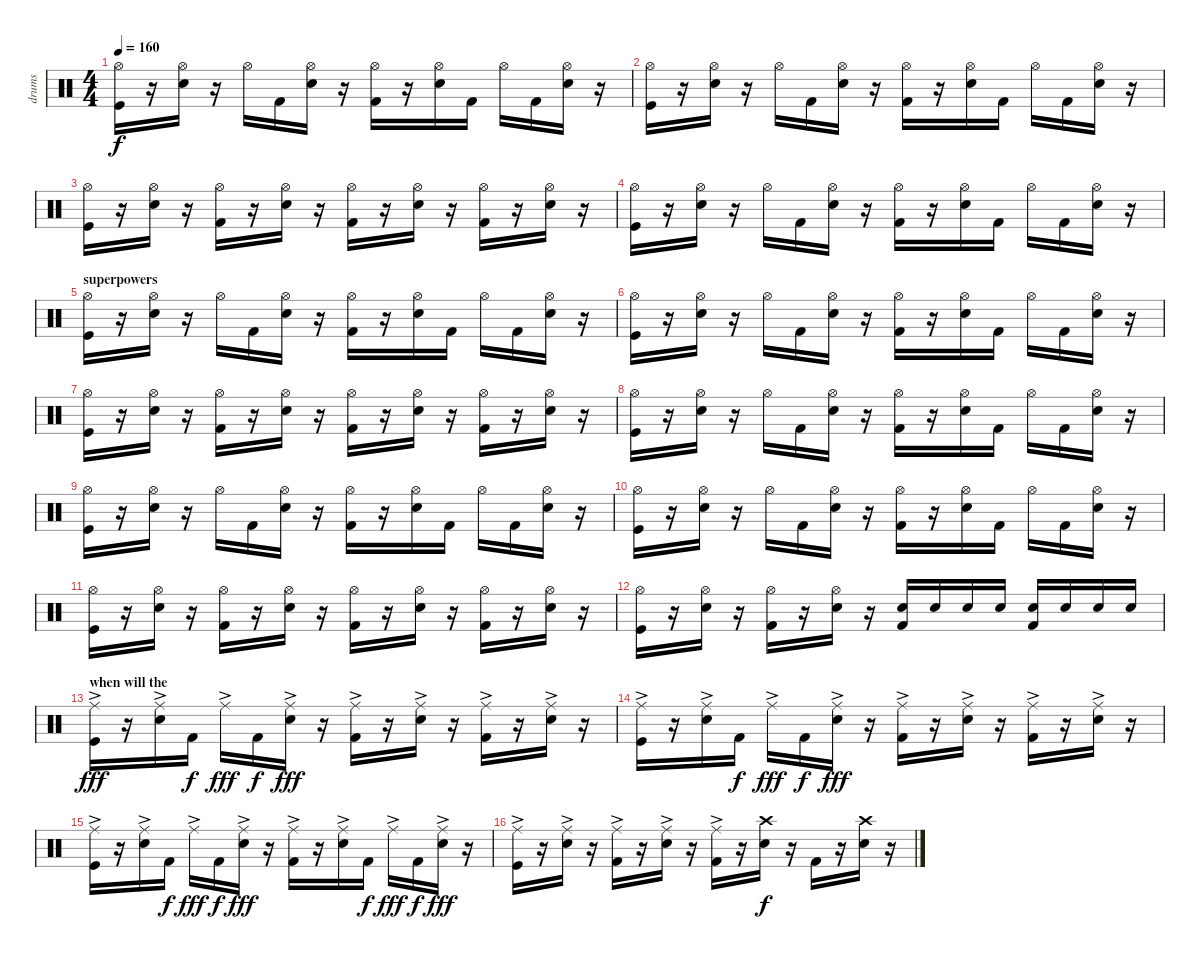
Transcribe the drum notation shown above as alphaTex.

\track ("drums" "drums") {instrument percussion}
\staff {score}
\articulation defaults
\ts (4 4)
\tempo 160
\clef neutral
\ks c
("Hi-Hat (open)" "Kick (hit)").16{dy f} r.16 ("Hi-Hat (open)" "Snare (hit) 2").16 r.16 "Hi-Hat (open)".16 "Kick (hit) 2".16 ("Hi-Hat (open)" "Snare (hit) 2").16 r.16 ("Hi-Hat (open)" "Kick (hit) 2").16 r.16 ("Hi-Hat (open)" "Snare (hit) 2").16 "Kick (hit) 2".16 "Hi-Hat (open)".16 "Kick (hit) 2".16 ("Hi-Hat (open)" "Snare (hit) 2").16 r.16 |
("Hi-Hat (open)" "Kick (hit)").16 r.16 ("Hi-Hat (open)" "Snare (hit) 2").16 r.16 "Hi-Hat (open)".16 "Kick (hit) 2".16 ("Hi-Hat (open)" "Snare (hit) 2").16 r.16 ("Hi-Hat (open)" "Kick (hit) 2").16 r.16 ("Hi-Hat (open)" "Snare (hit) 2").16 "Kick (hit) 2".16 "Hi-Hat (open)".16 "Kick (hit) 2".16 ("Hi-Hat (open)" "Snare (hit) 2").16 r.16 |
("Hi-Hat (open)" "Kick (hit)").16 r.16 ("Hi-Hat (open)" "Snare (hit) 2").16 r.16 ("Hi-Hat (open)" "Kick (hit) 2").16 r.16 ("Hi-Hat (open)" "Snare (hit) 2").16 r.16 ("Hi-Hat (open)" "Kick (hit) 2").16 r.16 ("Hi-Hat (open)" "Snare (hit) 2").16 r.16 ("Hi-Hat (open)" "Kick (hit) 2").16 r.16 ("Hi-Hat (open)" "Snare (hit) 2").16 r.16 |
("Hi-Hat (open)" "Kick (hit)").16 r.16 ("Hi-Hat (open)" "Snare (hit) 2").16 r.16 "Hi-Hat (open)".16 "Kick (hit) 2".16 ("Hi-Hat (open)" "Snare (hit) 2").16 r.16 ("Hi-Hat (open)" "Kick (hit) 2").16 r.16 ("Hi-Hat (open)" "Snare (hit) 2").16 "Kick (hit) 2".16 "Hi-Hat (open)".16 "Kick (hit) 2".16 ("Hi-Hat (open)" "Snare (hit) 2").16 r.16 |
\section ("" "superpowers")
("Hi-Hat (open)" "Kick (hit)").16 r.16 ("Hi-Hat (open)" "Snare (hit) 2").16 r.16 "Hi-Hat (open)".16 "Kick (hit) 2".16 ("Hi-Hat (open)" "Snare (hit) 2").16 r.16 ("Hi-Hat (open)" "Kick (hit) 2").16 r.16 ("Hi-Hat (open)" "Snare (hit) 2").16 "Kick (hit) 2".16 "Hi-Hat (open)".16 "Kick (hit) 2".16 ("Hi-Hat (open)" "Snare (hit) 2").16 r.16 |
("Hi-Hat (open)" "Kick (hit)").16 r.16 ("Hi-Hat (open)" "Snare (hit) 2").16 r.16 "Hi-Hat (open)".16 "Kick (hit) 2".16 ("Hi-Hat (open)" "Snare (hit) 2").16 r.16 ("Hi-Hat (open)" "Kick (hit) 2").16 r.16 ("Hi-Hat (open)" "Snare (hit) 2").16 "Kick (hit) 2".16 "Hi-Hat (open)".16 "Kick (hit) 2".16 ("Hi-Hat (open)" "Snare (hit) 2").16 r.16 |
("Hi-Hat (open)" "Kick (hit)").16 r.16 ("Hi-Hat (open)" "Snare (hit) 2").16 r.16 ("Hi-Hat (open)" "Kick (hit) 2").16 r.16 ("Hi-Hat (open)" "Snare (hit) 2").16 r.16 ("Hi-Hat (open)" "Kick (hit) 2").16 r.16 ("Hi-Hat (open)" "Snare (hit) 2").16 r.16 ("Hi-Hat (open)" "Kick (hit) 2").16 r.16 ("Hi-Hat (open)" "Snare (hit) 2").16 r.16 |
("Hi-Hat (open)" "Kick (hit)").16 r.16 ("Hi-Hat (open)" "Snare (hit) 2").16 r.16 "Hi-Hat (open)".16 "Kick (hit) 2".16 ("Hi-Hat (open)" "Snare (hit) 2").16 r.16 ("Hi-Hat (open)" "Kick (hit) 2").16 r.16 ("Hi-Hat (open)" "Snare (hit) 2").16 "Kick (hit) 2".16 "Hi-Hat (open)".16 "Kick (hit) 2".16 ("Hi-Hat (open)" "Snare (hit) 2").16 r.16 |
("Hi-Hat (open)" "Kick (hit)").16 r.16 ("Hi-Hat (open)" "Snare (hit) 2").16 r.16 "Hi-Hat (open)".16 "Kick (hit) 2".16 ("Hi-Hat (open)" "Snare (hit) 2").16 r.16 ("Hi-Hat (open)" "Kick (hit) 2").16 r.16 ("Hi-Hat (open)" "Snare (hit) 2").16 "Kick (hit) 2".16 "Hi-Hat (open)".16 "Kick (hit) 2".16 ("Hi-Hat (open)" "Snare (hit) 2").16 r.16 |
("Hi-Hat (open)" "Kick (hit)").16 r.16 ("Hi-Hat (open)" "Snare (hit) 2").16 r.16 "Hi-Hat (open)".16 "Kick (hit) 2".16 ("Hi-Hat (open)" "Snare (hit) 2").16 r.16 ("Hi-Hat (open)" "Kick (hit) 2").16 r.16 ("Hi-Hat (open)" "Snare (hit) 2").16 "Kick (hit) 2".16 "Hi-Hat (open)".16 "Kick (hit) 2".16 ("Hi-Hat (open)" "Snare (hit) 2").16 r.16 |
("Hi-Hat (open)" "Kick (hit)").16 r.16 ("Hi-Hat (open)" "Snare (hit) 2").16 r.16 ("Hi-Hat (open)" "Kick (hit) 2").16 r.16 ("Hi-Hat (open)" "Snare (hit) 2").16 r.16 ("Hi-Hat (open)" "Kick (hit) 2").16 r.16 ("Hi-Hat (open)" "Snare (hit) 2").16 r.16 ("Hi-Hat (open)" "Kick (hit) 2").16 r.16 ("Hi-Hat (open)" "Snare (hit) 2").16 r.16 |
("Hi-Hat (open)" "Kick (hit)").16 r.16 ("Hi-Hat (open)" "Snare (hit) 2").16 r.16 ("Hi-Hat (open)" "Kick (hit) 2").16 r.16 ("Hi-Hat (open)" "Snare (hit) 2").16 r.16 ("Snare (hit) 2" "Kick (hit) 2").16 "Snare (hit) 2".16 "Snare (hit) 2".16 "Snare (hit) 2".16 ("Snare (hit) 2" "Kick (hit) 2").16 "Snare (hit) 2".16 "Snare (hit) 2".16 "Snare (hit) 2".16 |
\section ("" "when will the")
("Ride (middle)"{ac} "Kick (hit)").16{dy fff} r.16 ("Ride (middle)"{ac} "Snare (hit) 2").16 "Kick (hit) 2".16{dy f} "Ride (middle)"{ac}.16{dy fff} "Kick (hit) 2".16{dy f} ("Ride (middle)"{ac} "Snare (hit) 2").16{dy fff} r.16 ("Ride (middle)"{ac} "Kick (hit) 2").16 r.16 ("Ride (middle)"{ac} "Snare (hit) 2").16 r.16 ("Ride (middle)"{ac} "Kick (hit) 2").16 r.16 ("Ride (middle)"{ac} "Snare (hit) 2").16 r.16 |
("Ride (middle)"{ac} "Kick (hit)").16 r.16 ("Ride (middle)"{ac} "Snare (hit) 2").16 "Kick (hit) 2".16{dy f} "Ride (middle)"{ac}.16{dy fff} "Kick (hit) 2".16{dy f} ("Ride (middle)"{ac} "Snare (hit) 2").16{dy fff} r.16 ("Ride (middle)"{ac} "Kick (hit) 2").16 r.16 ("Ride (middle)"{ac} "Snare (hit) 2").16 r.16 ("Ride (middle)"{ac} "Kick (hit) 2").16 r.16 ("Ride (middle)"{ac} "Snare (hit) 2").16 r.16 |
("Ride (middle)"{ac} "Kick (hit)").16 r.16 ("Ride (middle)"{ac} "Snare (hit) 2").16 "Kick (hit) 2".16{dy f} "Ride (middle)"{ac}.16{dy fff} "Kick (hit) 2".16{dy f} ("Ride (middle)"{ac} "Snare (hit) 2").16{dy fff} r.16 ("Ride (middle)"{ac} "Kick (hit) 2").16 r.16 ("Ride (middle)"{ac} "Snare (hit) 2").16 "Kick (hit) 2".16{dy f} "Ride (middle)"{ac}.16{dy fff} "Kick (hit) 2".16{dy f} ("Ride (middle)"{ac} "Snare (hit) 2").16{dy fff} r.16 |
("Ride (middle)"{ac} "Kick (hit)").16 r.16 ("Ride (middle)"{ac} "Snare (hit) 2").16 r.16 ("Ride (middle)"{ac} "Kick (hit) 2").16 r.16 ("Ride (middle)"{ac} "Snare (hit) 2").16 r.16 ("Ride (middle)"{ac} "Kick (hit) 2").16 r.16 ("Crash high (hit)" "Snare (hit) 2").16{dy f} r.16 "Kick (hit) 2".16 r.16 ("Crash high (hit)" "Snare (hit) 2").16 r.16
